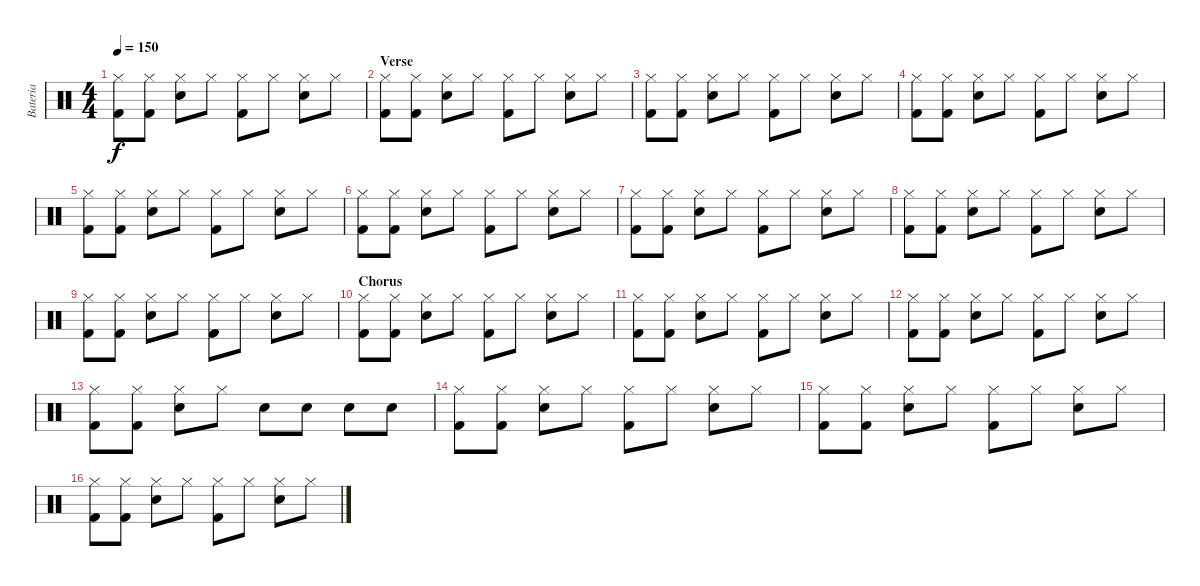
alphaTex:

\track ("Bateria" "Bateria") {instrument percussion}
\staff {score}
\articulation defaults
\ts (4 4)
\tempo 150
\clef neutral
\ks c
("Hi-Hat (closed)" "Kick (hit) 2").8{dy f} ("Hi-Hat (closed)" "Kick (hit) 2").8 ("Hi-Hat (closed)" "Snare (hit) 2").8 "Hi-Hat (closed)".8 ("Hi-Hat (closed)" "Kick (hit) 2").8 "Hi-Hat (closed)".8 ("Hi-Hat (closed)" "Snare (hit) 2").8 "Hi-Hat (closed)".8 |
\section ("" "Verse")
("Hi-Hat (closed)" "Kick (hit) 2").8 ("Hi-Hat (closed)" "Kick (hit) 2").8 ("Hi-Hat (closed)" "Snare (hit) 2").8 "Hi-Hat (closed)".8 ("Hi-Hat (closed)" "Kick (hit) 2").8 "Hi-Hat (closed)".8 ("Hi-Hat (closed)" "Snare (hit) 2").8 "Hi-Hat (closed)".8 |
("Hi-Hat (closed)" "Kick (hit) 2").8 ("Hi-Hat (closed)" "Kick (hit) 2").8 ("Hi-Hat (closed)" "Snare (hit) 2").8 "Hi-Hat (closed)".8 ("Hi-Hat (closed)" "Kick (hit) 2").8 "Hi-Hat (closed)".8 ("Hi-Hat (closed)" "Snare (hit) 2").8 "Hi-Hat (closed)".8 |
("Hi-Hat (closed)" "Kick (hit) 2").8 ("Hi-Hat (closed)" "Kick (hit) 2").8 ("Hi-Hat (closed)" "Snare (hit) 2").8 "Hi-Hat (closed)".8 ("Hi-Hat (closed)" "Kick (hit) 2").8 "Hi-Hat (closed)".8 ("Hi-Hat (closed)" "Snare (hit) 2").8 "Hi-Hat (closed)".8 |
("Hi-Hat (closed)" "Kick (hit) 2").8 ("Hi-Hat (closed)" "Kick (hit) 2").8 ("Hi-Hat (closed)" "Snare (hit) 2").8 "Hi-Hat (closed)".8 ("Hi-Hat (closed)" "Kick (hit) 2").8 "Hi-Hat (closed)".8 ("Hi-Hat (closed)" "Snare (hit) 2").8 "Hi-Hat (closed)".8 |
("Hi-Hat (closed)" "Kick (hit) 2").8 ("Hi-Hat (closed)" "Kick (hit) 2").8 ("Hi-Hat (closed)" "Snare (hit) 2").8 "Hi-Hat (closed)".8 ("Hi-Hat (closed)" "Kick (hit) 2").8 "Hi-Hat (closed)".8 ("Hi-Hat (closed)" "Snare (hit) 2").8 "Hi-Hat (closed)".8 |
("Hi-Hat (closed)" "Kick (hit) 2").8 ("Hi-Hat (closed)" "Kick (hit) 2").8 ("Hi-Hat (closed)" "Snare (hit) 2").8 "Hi-Hat (closed)".8 ("Hi-Hat (closed)" "Kick (hit) 2").8 "Hi-Hat (closed)".8 ("Hi-Hat (closed)" "Snare (hit) 2").8 "Hi-Hat (closed)".8 |
("Hi-Hat (closed)" "Kick (hit) 2").8 ("Hi-Hat (closed)" "Kick (hit) 2").8 ("Hi-Hat (closed)" "Snare (hit) 2").8 "Hi-Hat (closed)".8 ("Hi-Hat (closed)" "Kick (hit) 2").8 "Hi-Hat (closed)".8 ("Hi-Hat (closed)" "Snare (hit) 2").8 "Hi-Hat (closed)".8 |
("Hi-Hat (closed)" "Kick (hit) 2").8 ("Hi-Hat (closed)" "Kick (hit) 2").8 ("Hi-Hat (closed)" "Snare (hit) 2").8 "Hi-Hat (closed)".8 ("Hi-Hat (closed)" "Kick (hit) 2").8 "Hi-Hat (closed)".8 ("Hi-Hat (closed)" "Snare (hit) 2").8 "Hi-Hat (closed)".8 |
\section ("" "Chorus")
("Hi-Hat (closed)" "Kick (hit) 2").8 ("Hi-Hat (closed)" "Kick (hit) 2").8 ("Hi-Hat (closed)" "Snare (hit) 2").8 "Hi-Hat (closed)".8 ("Hi-Hat (closed)" "Kick (hit) 2").8 "Hi-Hat (closed)".8 ("Hi-Hat (closed)" "Snare (hit) 2").8 "Hi-Hat (closed)".8 |
("Hi-Hat (closed)" "Kick (hit) 2").8 ("Hi-Hat (closed)" "Kick (hit) 2").8 ("Hi-Hat (closed)" "Snare (hit) 2").8 "Hi-Hat (closed)".8 ("Hi-Hat (closed)" "Kick (hit) 2").8 "Hi-Hat (closed)".8 ("Hi-Hat (closed)" "Snare (hit) 2").8 "Hi-Hat (closed)".8 |
("Hi-Hat (closed)" "Kick (hit) 2").8 ("Hi-Hat (closed)" "Kick (hit) 2").8 ("Hi-Hat (closed)" "Snare (hit) 2").8 "Hi-Hat (closed)".8 ("Hi-Hat (closed)" "Kick (hit) 2").8 "Hi-Hat (closed)".8 ("Hi-Hat (closed)" "Snare (hit) 2").8 "Hi-Hat (closed)".8 |
("Hi-Hat (closed)" "Kick (hit) 2").8 ("Hi-Hat (closed)" "Kick (hit) 2").8 ("Hi-Hat (closed)" "Snare (hit) 2").8 "Hi-Hat (closed)".8 "Snare (hit) 2".8 "Snare (hit) 2".8 "Snare (hit) 2".8 "Snare (hit) 2".8 |
("Hi-Hat (closed)" "Kick (hit) 2").8 ("Hi-Hat (closed)" "Kick (hit) 2").8 ("Hi-Hat (closed)" "Snare (hit) 2").8 "Hi-Hat (closed)".8 ("Hi-Hat (closed)" "Kick (hit) 2").8 "Hi-Hat (closed)".8 ("Hi-Hat (closed)" "Snare (hit) 2").8 "Hi-Hat (closed)".8 |
("Hi-Hat (closed)" "Kick (hit) 2").8 ("Hi-Hat (closed)" "Kick (hit) 2").8 ("Hi-Hat (closed)" "Snare (hit) 2").8 "Hi-Hat (closed)".8 ("Hi-Hat (closed)" "Kick (hit) 2").8 "Hi-Hat (closed)".8 ("Hi-Hat (closed)" "Snare (hit) 2").8 "Hi-Hat (closed)".8 |
("Hi-Hat (closed)" "Kick (hit) 2").8 ("Hi-Hat (closed)" "Kick (hit) 2").8 ("Hi-Hat (closed)" "Snare (hit) 2").8 "Hi-Hat (closed)".8 ("Hi-Hat (closed)" "Kick (hit) 2").8 "Hi-Hat (closed)".8 ("Hi-Hat (closed)" "Snare (hit) 2").8 "Hi-Hat (closed)".8
